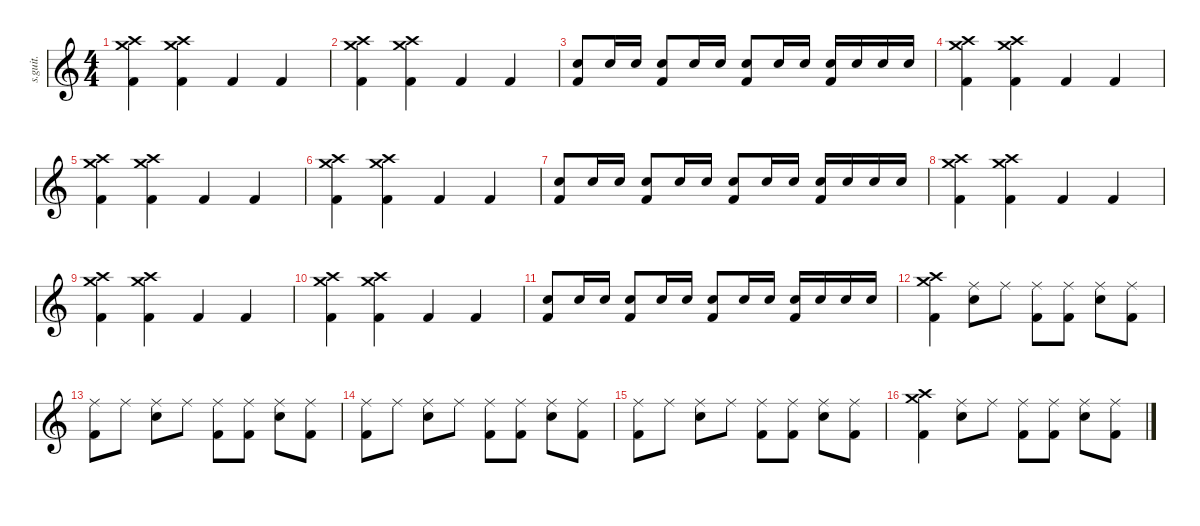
\defaultSystemsLayout 4
\hideDynamics
\bracketExtendMode nobrackets
\track ("Bob Burns (Drums)" "s.guit.") {instrument percussion}
\staff {score}
\articulation defaults
\ts (4 4)
\tempo (150 hide)
\clef g2
\ks c
("Crash high (hit)" "Crash medium (hit)" "Kick (hit) 2").4{lyrics (0 "") lyrics (1 "") lyrics (2 "") lyrics (3 "") lyrics (4 "") dy f} ("Crash high (hit)" "Crash medium (hit)" "Kick (hit) 2").4{lyrics (0 "") lyrics (1 "") lyrics (2 "") lyrics (3 "") lyrics (4 "")} "Kick (hit) 2".4{lyrics (0 "") lyrics (1 "") lyrics (2 "") lyrics (3 "") lyrics (4 "")} "Kick (hit) 2".4{lyrics (0 "") lyrics (1 "") lyrics (2 "") lyrics (3 "") lyrics (4 "")} |
("Crash high (hit)" "Crash medium (hit)" "Kick (hit) 2").4{lyrics (0 "") lyrics (1 "") lyrics (2 "") lyrics (3 "") lyrics (4 "")} ("Crash high (hit)" "Crash medium (hit)" "Kick (hit) 2").4{lyrics (0 "") lyrics (1 "") lyrics (2 "") lyrics (3 "") lyrics (4 "")} "Kick (hit) 2".4{lyrics (0 "") lyrics (1 "") lyrics (2 "") lyrics (3 "") lyrics (4 "")} "Kick (hit) 2".4{lyrics (0 "") lyrics (1 "") lyrics (2 "") lyrics (3 "") lyrics (4 "")} |
("Electric Snare (hit)" "Kick (hit) 2").8{lyrics (0 "") lyrics (1 "") lyrics (2 "") lyrics (3 "") lyrics (4 "")} "Electric Snare (hit)".16{lyrics (0 "") lyrics (1 "") lyrics (2 "") lyrics (3 "") lyrics (4 "")} "Electric Snare (hit)".16{lyrics (0 "") lyrics (1 "") lyrics (2 "") lyrics (3 "") lyrics (4 "")} ("Electric Snare (hit)" "Kick (hit) 2").8{lyrics (0 "") lyrics (1 "") lyrics (2 "") lyrics (3 "") lyrics (4 "")} "Electric Snare (hit)".16{lyrics (0 "") lyrics (1 "") lyrics (2 "") lyrics (3 "") lyrics (4 "")} "Electric Snare (hit)".16{lyrics (0 "") lyrics (1 "") lyrics (2 "") lyrics (3 "") lyrics (4 "")} ("Electric Snare (hit)" "Kick (hit) 2").8{lyrics (0 "") lyrics (1 "") lyrics (2 "") lyrics (3 "") lyrics (4 "")} "Electric Snare (hit)".16{lyrics (0 "") lyrics (1 "") lyrics (2 "") lyrics (3 "") lyrics (4 "")} "Electric Snare (hit)".16{lyrics (0 "") lyrics (1 "") lyrics (2 "") lyrics (3 "") lyrics (4 "")} ("Electric Snare (hit)" "Kick (hit) 2").16{lyrics (0 "") lyrics (1 "") lyrics (2 "") lyrics (3 "") lyrics (4 "")} "Electric Snare (hit)".16{lyrics (0 "") lyrics (1 "") lyrics (2 "") lyrics (3 "") lyrics (4 "")} "Electric Snare (hit)".16{lyrics (0 "") lyrics (1 "") lyrics (2 "") lyrics (3 "") lyrics (4 "")} "Electric Snare (hit)".16{lyrics (0 "") lyrics (1 "") lyrics (2 "") lyrics (3 "") lyrics (4 "")} |
("Crash high (hit)" "Crash medium (hit)" "Kick (hit) 2").4{lyrics (0 "") lyrics (1 "") lyrics (2 "") lyrics (3 "") lyrics (4 "")} ("Crash high (hit)" "Crash medium (hit)" "Kick (hit) 2").4{lyrics (0 "") lyrics (1 "") lyrics (2 "") lyrics (3 "") lyrics (4 "")} "Kick (hit) 2".4{lyrics (0 "") lyrics (1 "") lyrics (2 "") lyrics (3 "") lyrics (4 "")} "Kick (hit) 2".4{lyrics (0 "") lyrics (1 "") lyrics (2 "") lyrics (3 "") lyrics (4 "")} |
("Crash high (hit)" "Crash medium (hit)" "Kick (hit) 2").4{lyrics (0 "") lyrics (1 "") lyrics (2 "") lyrics (3 "") lyrics (4 "")} ("Crash high (hit)" "Crash medium (hit)" "Kick (hit) 2").4{lyrics (0 "") lyrics (1 "") lyrics (2 "") lyrics (3 "") lyrics (4 "")} "Kick (hit) 2".4{lyrics (0 "") lyrics (1 "") lyrics (2 "") lyrics (3 "") lyrics (4 "")} "Kick (hit) 2".4{lyrics (0 "") lyrics (1 "") lyrics (2 "") lyrics (3 "") lyrics (4 "")} |
("Crash high (hit)" "Crash medium (hit)" "Kick (hit) 2").4{lyrics (0 "") lyrics (1 "") lyrics (2 "") lyrics (3 "") lyrics (4 "")} ("Crash high (hit)" "Crash medium (hit)" "Kick (hit) 2").4{lyrics (0 "") lyrics (1 "") lyrics (2 "") lyrics (3 "") lyrics (4 "")} "Kick (hit) 2".4{lyrics (0 "") lyrics (1 "") lyrics (2 "") lyrics (3 "") lyrics (4 "")} "Kick (hit) 2".4{lyrics (0 "") lyrics (1 "") lyrics (2 "") lyrics (3 "") lyrics (4 "")} |
("Electric Snare (hit)" "Kick (hit) 2").8{lyrics (0 "") lyrics (1 "") lyrics (2 "") lyrics (3 "") lyrics (4 "")} "Electric Snare (hit)".16{lyrics (0 "") lyrics (1 "") lyrics (2 "") lyrics (3 "") lyrics (4 "")} "Electric Snare (hit)".16{lyrics (0 "") lyrics (1 "") lyrics (2 "") lyrics (3 "") lyrics (4 "")} ("Electric Snare (hit)" "Kick (hit) 2").8{lyrics (0 "") lyrics (1 "") lyrics (2 "") lyrics (3 "") lyrics (4 "")} "Electric Snare (hit)".16{lyrics (0 "") lyrics (1 "") lyrics (2 "") lyrics (3 "") lyrics (4 "")} "Electric Snare (hit)".16{lyrics (0 "") lyrics (1 "") lyrics (2 "") lyrics (3 "") lyrics (4 "")} ("Electric Snare (hit)" "Kick (hit) 2").8{lyrics (0 "") lyrics (1 "") lyrics (2 "") lyrics (3 "") lyrics (4 "")} "Electric Snare (hit)".16{lyrics (0 "") lyrics (1 "") lyrics (2 "") lyrics (3 "") lyrics (4 "")} "Electric Snare (hit)".16{lyrics (0 "") lyrics (1 "") lyrics (2 "") lyrics (3 "") lyrics (4 "")} ("Electric Snare (hit)" "Kick (hit) 2").16{lyrics (0 "") lyrics (1 "") lyrics (2 "") lyrics (3 "") lyrics (4 "")} "Electric Snare (hit)".16{lyrics (0 "") lyrics (1 "") lyrics (2 "") lyrics (3 "") lyrics (4 "")} "Electric Snare (hit)".16{lyrics (0 "") lyrics (1 "") lyrics (2 "") lyrics (3 "") lyrics (4 "")} "Electric Snare (hit)".16{lyrics (0 "") lyrics (1 "") lyrics (2 "") lyrics (3 "") lyrics (4 "")} |
("Crash high (hit)" "Crash medium (hit)" "Kick (hit) 2").4{lyrics (0 "") lyrics (1 "") lyrics (2 "") lyrics (3 "") lyrics (4 "")} ("Crash high (hit)" "Crash medium (hit)" "Kick (hit) 2").4{lyrics (0 "") lyrics (1 "") lyrics (2 "") lyrics (3 "") lyrics (4 "")} "Kick (hit) 2".4{lyrics (0 "") lyrics (1 "") lyrics (2 "") lyrics (3 "") lyrics (4 "")} "Kick (hit) 2".4{lyrics (0 "") lyrics (1 "") lyrics (2 "") lyrics (3 "") lyrics (4 "")} |
("Crash high (hit)" "Crash medium (hit)" "Kick (hit) 2").4{lyrics (0 "") lyrics (1 "") lyrics (2 "") lyrics (3 "") lyrics (4 "")} ("Crash high (hit)" "Crash medium (hit)" "Kick (hit) 2").4{lyrics (0 "") lyrics (1 "") lyrics (2 "") lyrics (3 "") lyrics (4 "")} "Kick (hit) 2".4{lyrics (0 "") lyrics (1 "") lyrics (2 "") lyrics (3 "") lyrics (4 "")} "Kick (hit) 2".4{lyrics (0 "") lyrics (1 "") lyrics (2 "") lyrics (3 "") lyrics (4 "")} |
("Crash high (hit)" "Crash medium (hit)" "Kick (hit) 2").4{lyrics (0 "") lyrics (1 "") lyrics (2 "") lyrics (3 "") lyrics (4 "")} ("Crash high (hit)" "Crash medium (hit)" "Kick (hit) 2").4{lyrics (0 "") lyrics (1 "") lyrics (2 "") lyrics (3 "") lyrics (4 "")} "Kick (hit) 2".4{lyrics (0 "") lyrics (1 "") lyrics (2 "") lyrics (3 "") lyrics (4 "")} "Kick (hit) 2".4{lyrics (0 "") lyrics (1 "") lyrics (2 "") lyrics (3 "") lyrics (4 "")} |
("Electric Snare (hit)" "Kick (hit) 2").8{lyrics (0 "") lyrics (1 "") lyrics (2 "") lyrics (3 "") lyrics (4 "")} "Electric Snare (hit)".16{lyrics (0 "") lyrics (1 "") lyrics (2 "") lyrics (3 "") lyrics (4 "")} "Electric Snare (hit)".16{lyrics (0 "") lyrics (1 "") lyrics (2 "") lyrics (3 "") lyrics (4 "")} ("Electric Snare (hit)" "Kick (hit) 2").8{lyrics (0 "") lyrics (1 "") lyrics (2 "") lyrics (3 "") lyrics (4 "")} "Electric Snare (hit)".16{lyrics (0 "") lyrics (1 "") lyrics (2 "") lyrics (3 "") lyrics (4 "")} "Electric Snare (hit)".16{lyrics (0 "") lyrics (1 "") lyrics (2 "") lyrics (3 "") lyrics (4 "")} ("Electric Snare (hit)" "Kick (hit) 2").8{lyrics (0 "") lyrics (1 "") lyrics (2 "") lyrics (3 "") lyrics (4 "")} "Electric Snare (hit)".16{lyrics (0 "") lyrics (1 "") lyrics (2 "") lyrics (3 "") lyrics (4 "")} "Electric Snare (hit)".16{lyrics (0 "") lyrics (1 "") lyrics (2 "") lyrics (3 "") lyrics (4 "")} ("Electric Snare (hit)" "Kick (hit) 2").16{lyrics (0 "") lyrics (1 "") lyrics (2 "") lyrics (3 "") lyrics (4 "")} "Electric Snare (hit)".16{lyrics (0 "") lyrics (1 "") lyrics (2 "") lyrics (3 "") lyrics (4 "")} "Electric Snare (hit)".16{lyrics (0 "") lyrics (1 "") lyrics (2 "") lyrics (3 "") lyrics (4 "")} "Electric Snare (hit)".16{lyrics (0 "") lyrics (1 "") lyrics (2 "") lyrics (3 "") lyrics (4 "")} |
("Crash high (hit)" "Crash medium (hit)" "Kick (hit) 2").4{lyrics (0 "") lyrics (1 "") lyrics (2 "") lyrics (3 "") lyrics (4 "")} ("Ride (middle)" "Electric Snare (hit)").8{lyrics (0 "") lyrics (1 "") lyrics (2 "") lyrics (3 "") lyrics (4 "")} "Ride (middle)".8{lyrics (0 "") lyrics (1 "") lyrics (2 "") lyrics (3 "") lyrics (4 "")} ("Ride (middle)" "Kick (hit) 2").8{lyrics (0 "") lyrics (1 "") lyrics (2 "") lyrics (3 "") lyrics (4 "")} ("Ride (middle)" "Kick (hit) 2").8{lyrics (0 "") lyrics (1 "") lyrics (2 "") lyrics (3 "") lyrics (4 "")} ("Ride (middle)" "Electric Snare (hit)").8{lyrics (0 "") lyrics (1 "") lyrics (2 "") lyrics (3 "") lyrics (4 "")} ("Ride (middle)" "Kick (hit) 2").8{lyrics (0 "") lyrics (1 "") lyrics (2 "") lyrics (3 "") lyrics (4 "")} |
("Ride (middle)" "Kick (hit) 2").8{lyrics (0 "") lyrics (1 "") lyrics (2 "") lyrics (3 "") lyrics (4 "")} "Ride (middle)".8{lyrics (0 "") lyrics (1 "") lyrics (2 "") lyrics (3 "") lyrics (4 "")} ("Ride (middle)" "Electric Snare (hit)").8{lyrics (0 "") lyrics (1 "") lyrics (2 "") lyrics (3 "") lyrics (4 "")} "Ride (middle)".8{lyrics (0 "") lyrics (1 "") lyrics (2 "") lyrics (3 "") lyrics (4 "")} ("Ride (middle)" "Kick (hit) 2").8{lyrics (0 "") lyrics (1 "") lyrics (2 "") lyrics (3 "") lyrics (4 "")} ("Ride (middle)" "Kick (hit) 2").8{lyrics (0 "") lyrics (1 "") lyrics (2 "") lyrics (3 "") lyrics (4 "")} ("Ride (middle)" "Electric Snare (hit)").8{lyrics (0 "") lyrics (1 "") lyrics (2 "") lyrics (3 "") lyrics (4 "")} ("Ride (middle)" "Kick (hit) 2").8{lyrics (0 "") lyrics (1 "") lyrics (2 "") lyrics (3 "") lyrics (4 "")} |
("Ride (middle)" "Kick (hit) 2").8{lyrics (0 "") lyrics (1 "") lyrics (2 "") lyrics (3 "") lyrics (4 "")} "Ride (middle)".8{lyrics (0 "") lyrics (1 "") lyrics (2 "") lyrics (3 "") lyrics (4 "")} ("Ride (middle)" "Electric Snare (hit)").8{lyrics (0 "") lyrics (1 "") lyrics (2 "") lyrics (3 "") lyrics (4 "")} "Ride (middle)".8{lyrics (0 "") lyrics (1 "") lyrics (2 "") lyrics (3 "") lyrics (4 "")} ("Ride (middle)" "Kick (hit) 2").8{lyrics (0 "") lyrics (1 "") lyrics (2 "") lyrics (3 "") lyrics (4 "")} ("Ride (middle)" "Kick (hit) 2").8{lyrics (0 "") lyrics (1 "") lyrics (2 "") lyrics (3 "") lyrics (4 "")} ("Ride (middle)" "Electric Snare (hit)").8{lyrics (0 "") lyrics (1 "") lyrics (2 "") lyrics (3 "") lyrics (4 "")} ("Ride (middle)" "Kick (hit) 2").8{lyrics (0 "") lyrics (1 "") lyrics (2 "") lyrics (3 "") lyrics (4 "")} |
("Ride (middle)" "Kick (hit) 2").8{lyrics (0 "") lyrics (1 "") lyrics (2 "") lyrics (3 "") lyrics (4 "")} "Ride (middle)".8{lyrics (0 "") lyrics (1 "") lyrics (2 "") lyrics (3 "") lyrics (4 "")} ("Ride (middle)" "Electric Snare (hit)").8{lyrics (0 "") lyrics (1 "") lyrics (2 "") lyrics (3 "") lyrics (4 "")} "Ride (middle)".8{lyrics (0 "") lyrics (1 "") lyrics (2 "") lyrics (3 "") lyrics (4 "")} ("Ride (middle)" "Kick (hit) 2").8{lyrics (0 "") lyrics (1 "") lyrics (2 "") lyrics (3 "") lyrics (4 "")} ("Ride (middle)" "Kick (hit) 2").8{lyrics (0 "") lyrics (1 "") lyrics (2 "") lyrics (3 "") lyrics (4 "")} ("Ride (middle)" "Electric Snare (hit)").8{lyrics (0 "") lyrics (1 "") lyrics (2 "") lyrics (3 "") lyrics (4 "")} ("Ride (middle)" "Kick (hit) 2").8{lyrics (0 "") lyrics (1 "") lyrics (2 "") lyrics (3 "") lyrics (4 "")} |
("Crash high (hit)" "Crash medium (hit)" "Kick (hit) 2").4{lyrics (0 "") lyrics (1 "") lyrics (2 "") lyrics (3 "") lyrics (4 "")} ("Ride (middle)" "Electric Snare (hit)").8{lyrics (0 "") lyrics (1 "") lyrics (2 "") lyrics (3 "") lyrics (4 "")} "Ride (middle)".8{lyrics (0 "") lyrics (1 "") lyrics (2 "") lyrics (3 "") lyrics (4 "")} ("Ride (middle)" "Kick (hit) 2").8{lyrics (0 "") lyrics (1 "") lyrics (2 "") lyrics (3 "") lyrics (4 "")} ("Ride (middle)" "Kick (hit) 2").8{lyrics (0 "") lyrics (1 "") lyrics (2 "") lyrics (3 "") lyrics (4 "")} ("Ride (middle)" "Electric Snare (hit)").8{lyrics (0 "") lyrics (1 "") lyrics (2 "") lyrics (3 "") lyrics (4 "")} ("Ride (middle)" "Kick (hit) 2").8{lyrics (0 "") lyrics (1 "") lyrics (2 "") lyrics (3 "") lyrics (4 "")}
